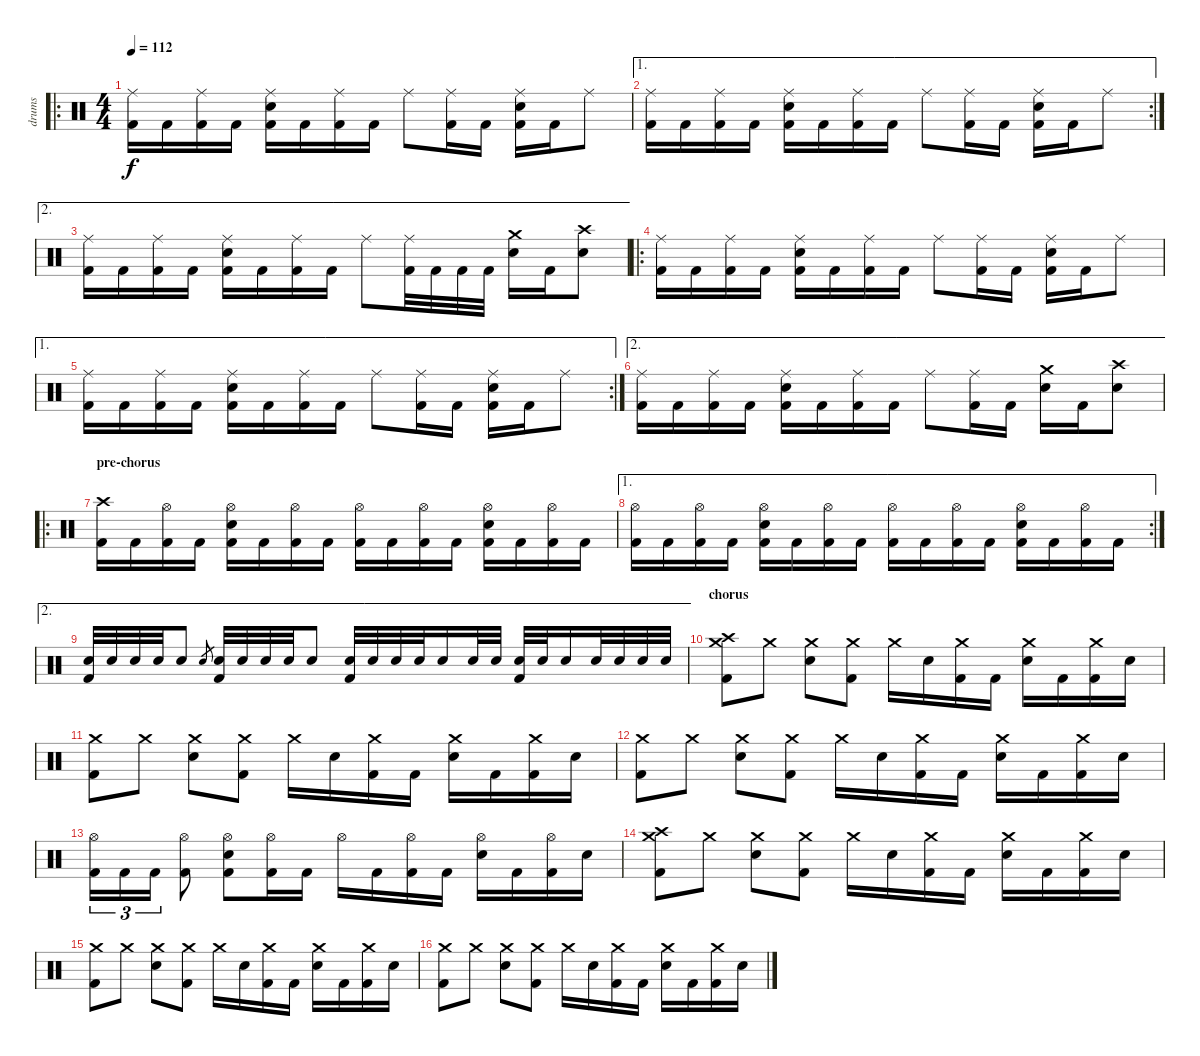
\track ("drums" "drums") {instrument percussion}
\staff {score}
\articulation defaults
\ro
\ts (4 4)
\tempo 112
\clef neutral
\ks c
("Ride (middle)" "Kick (hit) 2").16{dy f} "Kick (hit) 2".16 ("Ride (middle)" "Kick (hit) 2").16 "Kick (hit) 2".16 ("Ride (middle)" "Electric Snare (hit)" "Kick (hit) 2").16 "Kick (hit) 2".16 ("Ride (middle)" "Kick (hit) 2").16 "Kick (hit) 2".16 "Ride (middle)".8 ("Ride (middle)" "Kick (hit) 2").16 "Kick (hit) 2".16 ("Ride (middle)" "Electric Snare (hit)" "Kick (hit) 2").16 "Kick (hit) 2".16 "Ride (middle)".8 |
\ae 1
\rc 2
("Ride (middle)" "Kick (hit) 2").16 "Kick (hit) 2".16 ("Ride (middle)" "Kick (hit) 2").16 "Kick (hit) 2".16 ("Ride (middle)" "Electric Snare (hit)" "Kick (hit) 2").16 "Kick (hit) 2".16 ("Ride (middle)" "Kick (hit) 2").16 "Kick (hit) 2".16 "Ride (middle)".8 ("Ride (middle)" "Kick (hit) 2").16 "Kick (hit) 2".16 ("Ride (middle)" "Electric Snare (hit)" "Kick (hit) 2").16 "Kick (hit) 2".16 "Ride (middle)".8 |
\ae 2
("Ride (middle)" "Kick (hit) 2").16 "Kick (hit) 2".16 ("Ride (middle)" "Kick (hit) 2").16 "Kick (hit) 2".16 ("Ride (middle)" "Electric Snare (hit)" "Kick (hit) 2").16 "Kick (hit) 2".16 ("Ride (middle)" "Kick (hit) 2").16 "Kick (hit) 2".16 "Ride (middle)".8 ("Ride (middle)" "Kick (hit) 2").32 "Kick (hit) 2".32 "Kick (hit) 2".32 "Kick (hit) 2".32 ("Crash medium (hit)" "Electric Snare (hit)").16 "Kick (hit) 2".16 ("Crash high (hit)" "Electric Snare (hit)").8 |
\ro
("Ride (middle)" "Kick (hit) 2").16 "Kick (hit) 2".16 ("Ride (middle)" "Kick (hit) 2").16 "Kick (hit) 2".16 ("Ride (middle)" "Electric Snare (hit)" "Kick (hit) 2").16 "Kick (hit) 2".16 ("Ride (middle)" "Kick (hit) 2").16 "Kick (hit) 2".16 "Ride (middle)".8 ("Ride (middle)" "Kick (hit) 2").16 "Kick (hit) 2".16 ("Ride (middle)" "Electric Snare (hit)" "Kick (hit) 2").16 "Kick (hit) 2".16 "Ride (middle)".8 |
\ae 1
\rc 2
("Ride (middle)" "Kick (hit) 2").16 "Kick (hit) 2".16 ("Ride (middle)" "Kick (hit) 2").16 "Kick (hit) 2".16 ("Ride (middle)" "Electric Snare (hit)" "Kick (hit) 2").16 "Kick (hit) 2".16 ("Ride (middle)" "Kick (hit) 2").16 "Kick (hit) 2".16 "Ride (middle)".8 ("Ride (middle)" "Kick (hit) 2").16 "Kick (hit) 2".16 ("Ride (middle)" "Electric Snare (hit)" "Kick (hit) 2").16 "Kick (hit) 2".16 "Ride (middle)".8 |
\ae 2
("Ride (middle)" "Kick (hit) 2").16 "Kick (hit) 2".16 ("Ride (middle)" "Kick (hit) 2").16 "Kick (hit) 2".16 ("Ride (middle)" "Electric Snare (hit)" "Kick (hit) 2").16 "Kick (hit) 2".16 ("Ride (middle)" "Kick (hit) 2").16 "Kick (hit) 2".16 "Ride (middle)".8 ("Ride (middle)" "Kick (hit) 2").16 "Kick (hit) 2".16 ("Crash medium (hit)" "Electric Snare (hit)").16 "Kick (hit) 2".16 ("Crash high (hit)" "Electric Snare (hit)").8 |
\ro
\section ("" "pre-chorus")
("Crash high (hit)" "Kick (hit) 2").16 "Kick (hit) 2".16 ("Hi-Hat (open)" "Kick (hit) 2").16 "Kick (hit) 2".16 ("Hi-Hat (open)" "Electric Snare (hit)" "Kick (hit) 2").16 "Kick (hit) 2".16 ("Hi-Hat (open)" "Kick (hit) 2").16 "Kick (hit) 2".16 ("Hi-Hat (open)" "Kick (hit) 2").16 "Kick (hit) 2".16 ("Hi-Hat (open)" "Kick (hit) 2").16 "Kick (hit) 2".16 ("Hi-Hat (open)" "Electric Snare (hit)" "Kick (hit) 2").16 "Kick (hit) 2".16 ("Hi-Hat (open)" "Kick (hit) 2").16 "Kick (hit) 2".16 |
\ae 1
\rc 2
("Hi-Hat (open)" "Kick (hit) 2").16 "Kick (hit) 2".16 ("Hi-Hat (open)" "Kick (hit) 2").16 "Kick (hit) 2".16 ("Hi-Hat (open)" "Electric Snare (hit)" "Kick (hit) 2").16 "Kick (hit) 2".16 ("Hi-Hat (open)" "Kick (hit) 2").16 "Kick (hit) 2".16 ("Hi-Hat (open)" "Kick (hit) 2").16 "Kick (hit) 2".16 ("Hi-Hat (open)" "Kick (hit) 2").16 "Kick (hit) 2".16 ("Hi-Hat (open)" "Electric Snare (hit)" "Kick (hit) 2").16 "Kick (hit) 2".16 ("Hi-Hat (open)" "Kick (hit) 2").16 "Kick (hit) 2".16 |
\ae 2
("Electric Snare (hit)" "Kick (hit) 2").32 "Electric Snare (hit)".32 "Electric Snare (hit)".32 "Electric Snare (hit)".32 "Electric Snare (hit)".8 "Electric Snare (hit)".8{gr} ("Electric Snare (hit)" "Kick (hit) 2").32 "Electric Snare (hit)".32 "Electric Snare (hit)".32 "Electric Snare (hit)".32 "Electric Snare (hit)".8 ("Electric Snare (hit)" "Kick (hit) 2").32 "Electric Snare (hit)".32 "Electric Snare (hit)".32 "Electric Snare (hit)".32 "Electric Snare (hit)".16 "Electric Snare (hit)".32 "Electric Snare (hit)".32 ("Electric Snare (hit)" "Kick (hit) 2").32 "Electric Snare (hit)".32 "Electric Snare (hit)".16 "Electric Snare (hit)".32 "Electric Snare (hit)".32 "Electric Snare (hit)".32 "Electric Snare (hit)".32 |
\section ("" "chorus")
("Crash high (hit)" "Crash medium (hit)" "Kick (hit) 2").8 "Crash medium (hit)".8 ("Crash medium (hit)" "Electric Snare (hit)").8 ("Crash medium (hit)" "Kick (hit) 2").8 "Crash medium (hit)".16 "Electric Snare (hit)".16 ("Crash medium (hit)" "Kick (hit) 2").16 "Kick (hit) 2".16 ("Crash medium (hit)" "Electric Snare (hit)").16 "Kick (hit) 2".16 ("Crash medium (hit)" "Kick (hit) 2").16 "Electric Snare (hit)".16 |
("Crash medium (hit)" "Kick (hit) 2").8 "Crash medium (hit)".8 ("Crash medium (hit)" "Electric Snare (hit)").8 ("Crash medium (hit)" "Kick (hit) 2").8 "Crash medium (hit)".16 "Electric Snare (hit)".16 ("Crash medium (hit)" "Kick (hit) 2").16 "Kick (hit) 2".16 ("Crash medium (hit)" "Electric Snare (hit)").16 "Kick (hit) 2".16 ("Crash medium (hit)" "Kick (hit) 2").16 "Electric Snare (hit)".16 |
("Crash medium (hit)" "Kick (hit) 2").8 "Crash medium (hit)".8 ("Crash medium (hit)" "Electric Snare (hit)").8 ("Crash medium (hit)" "Kick (hit) 2").8 "Crash medium (hit)".16 "Electric Snare (hit)".16 ("Crash medium (hit)" "Kick (hit) 2").16 "Kick (hit) 2".16 ("Crash medium (hit)" "Electric Snare (hit)").16 "Kick (hit) 2".16 ("Crash medium (hit)" "Kick (hit) 2").16 "Electric Snare (hit)".16 |
("Hi-Hat (open)" "Kick (hit) 2").16{tu (3 2)} "Kick (hit) 2".16{tu (3 2)} "Kick (hit) 2".16{tu (3 2)} ("Hi-Hat (open)" "Kick (hit) 2").8 ("Hi-Hat (open)" "Electric Snare (hit)" "Kick (hit) 2").8 ("Hi-Hat (open)" "Kick (hit) 2").16 "Kick (hit) 2".16 "Hi-Hat (open)".16 "Kick (hit) 2".16 ("Hi-Hat (open)" "Kick (hit) 2").16 "Kick (hit) 2".16 ("Hi-Hat (open)" "Electric Snare (hit)").16 "Kick (hit) 2".16 ("Hi-Hat (open)" "Kick (hit) 2").16 "Electric Snare (hit)".16 |
("Crash high (hit)" "Crash medium (hit)" "Kick (hit) 2").8 "Crash medium (hit)".8 ("Crash medium (hit)" "Electric Snare (hit)").8 ("Crash medium (hit)" "Kick (hit) 2").8 "Crash medium (hit)".16 "Electric Snare (hit)".16 ("Crash medium (hit)" "Kick (hit) 2").16 "Kick (hit) 2".16 ("Crash medium (hit)" "Electric Snare (hit)").16 "Kick (hit) 2".16 ("Crash medium (hit)" "Kick (hit) 2").16 "Electric Snare (hit)".16 |
("Crash medium (hit)" "Kick (hit) 2").8 "Crash medium (hit)".8 ("Crash medium (hit)" "Electric Snare (hit)").8 ("Crash medium (hit)" "Kick (hit) 2").8 "Crash medium (hit)".16 "Electric Snare (hit)".16 ("Crash medium (hit)" "Kick (hit) 2").16 "Kick (hit) 2".16 ("Crash medium (hit)" "Electric Snare (hit)").16 "Kick (hit) 2".16 ("Crash medium (hit)" "Kick (hit) 2").16 "Electric Snare (hit)".16 |
("Crash medium (hit)" "Kick (hit) 2").8 "Crash medium (hit)".8 ("Crash medium (hit)" "Electric Snare (hit)").8 ("Crash medium (hit)" "Kick (hit) 2").8 "Crash medium (hit)".16 "Electric Snare (hit)".16 ("Crash medium (hit)" "Kick (hit) 2").16 "Kick (hit) 2".16 ("Crash medium (hit)" "Electric Snare (hit)").16 "Kick (hit) 2".16 ("Crash medium (hit)" "Kick (hit) 2").16 "Electric Snare (hit)".16
